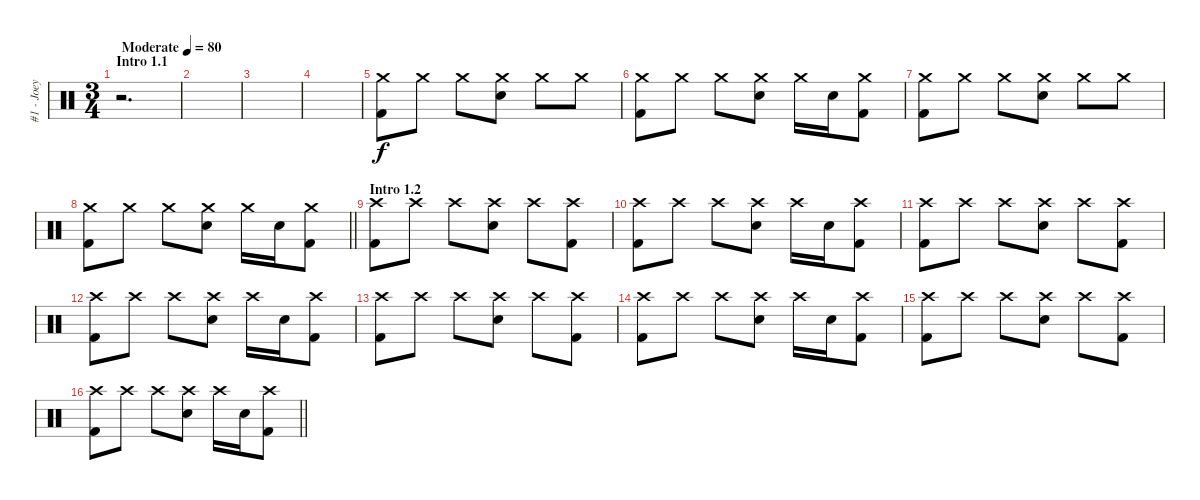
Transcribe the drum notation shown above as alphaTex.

\track ("#1 - Joey Jordison" "#1 - Joey ") {instrument percussion}
\staff {score}
\articulation defaults
\ts (3 4)
\section ("" "Intro 1.1")
\tempo (80 "Moderate")
\clef neutral
\ks c
r.2{d dy f volume 4} |
|
|
|
("Crash medium (hit)" "Kick (hit) 2").8 "Crash medium (hit)".8 "Crash medium (hit)".8 ("Crash medium (hit)" "Snare (hit) 2").8 "Crash medium (hit)".8 "Crash medium (hit)".8 |
("Crash medium (hit)" "Kick (hit) 2").8 "Crash medium (hit)".8 "Crash medium (hit)".8 ("Crash medium (hit)" "Snare (hit) 2").8{volume 13} "Crash medium (hit)".16 "Snare (hit) 2".16 ("Crash medium (hit)" "Kick (hit) 2").8 |
("Crash medium (hit)" "Kick (hit) 2").8 "Crash medium (hit)".8 "Crash medium (hit)".8 ("Crash medium (hit)" "Snare (hit) 2").8 "Crash medium (hit)".8 "Crash medium (hit)".8 |
\barLineRight lightlight
("Crash medium (hit)" "Kick (hit) 2").8 "Crash medium (hit)".8 "Crash medium (hit)".8 ("Crash medium (hit)" "Snare (hit) 2").8 "Crash medium (hit)".16 "Snare (hit) 2".16 ("Crash medium (hit)" "Kick (hit) 2").8 |
\section ("" "Intro 1.2")
("Crash high (hit)" "Kick (hit) 2").8{volume 13} "Crash high (hit)".8 "Crash high (hit)".8 ("Crash high (hit)" "Snare (hit) 2").8 "Crash high (hit)".8 ("Crash high (hit)" "Kick (hit) 2").8 |
("Crash high (hit)" "Kick (hit) 2").8 "Crash high (hit)".8 "Crash high (hit)".8 ("Crash high (hit)" "Snare (hit) 2").8 "Crash high (hit)".16 "Snare (hit) 2".16 ("Crash high (hit)" "Kick (hit) 2").8 |
("Crash high (hit)" "Kick (hit) 2").8 "Crash high (hit)".8 "Crash high (hit)".8 ("Crash high (hit)" "Snare (hit) 2").8 "Crash high (hit)".8 ("Crash high (hit)" "Kick (hit) 2").8 |
("Crash high (hit)" "Kick (hit) 2").8 "Crash high (hit)".8 "Crash high (hit)".8 ("Crash high (hit)" "Snare (hit) 2").8 "Crash high (hit)".16 "Snare (hit) 2".16 ("Crash high (hit)" "Kick (hit) 2").8 |
("Crash high (hit)" "Kick (hit) 2").8 "Crash high (hit)".8 "Crash high (hit)".8 ("Crash high (hit)" "Snare (hit) 2").8 "Crash high (hit)".8 ("Crash high (hit)" "Kick (hit) 2").8 |
("Crash high (hit)" "Kick (hit) 2").8 "Crash high (hit)".8 "Crash high (hit)".8 ("Crash high (hit)" "Snare (hit) 2").8 "Crash high (hit)".16 "Snare (hit) 2".16 ("Crash high (hit)" "Kick (hit) 2").8 |
("Crash high (hit)" "Kick (hit) 2").8 "Crash high (hit)".8 "Crash high (hit)".8 ("Crash high (hit)" "Snare (hit) 2").8 "Crash high (hit)".8 ("Crash high (hit)" "Kick (hit) 2").8 |
\barLineRight lightlight
("Crash high (hit)" "Kick (hit) 2").8 "Crash high (hit)".8 "Crash high (hit)".8 ("Crash high (hit)" "Snare (hit) 2").8 "Crash high (hit)".16 "Snare (hit) 2".16 ("Crash high (hit)" "Kick (hit) 2").8
